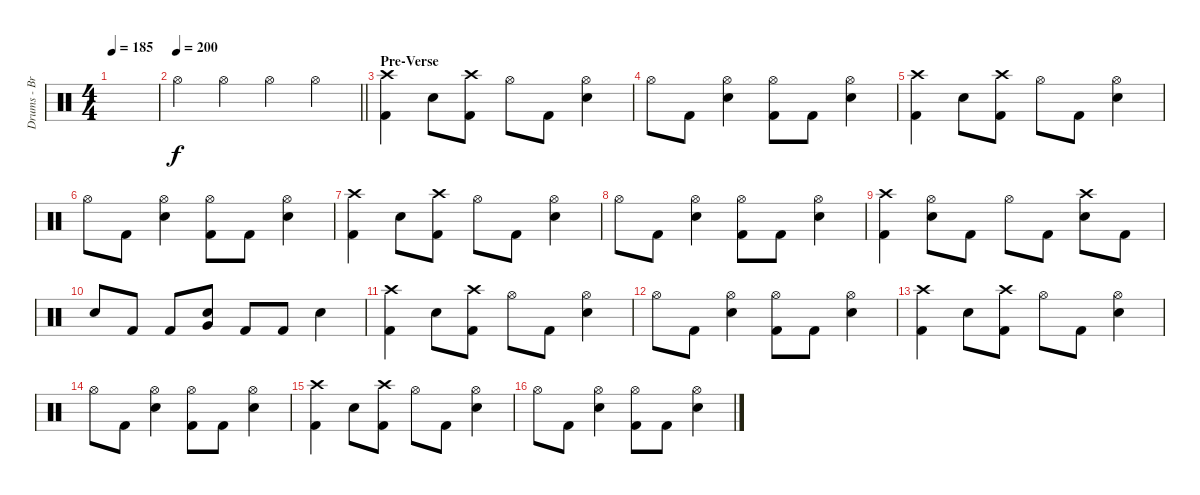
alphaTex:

\track ("Drums - Brandon Barnes" "Drums - Br") {instrument percussion}
\staff {score}
\articulation defaults
\ts (4 4)
\tempo 185
\clef neutral
\ks c
|
\tempo 200
\barLineRight lightlight "Hi-Hat (open)".4 "Hi-Hat (open)".4 "Hi-Hat (open)".4 "Hi-Hat (open)".4
|
\section ("" "Pre-Verse")
("Crash high (hit)" "Kick (hit) 2").4 "Electric Snare (hit)".8 ("Crash high (hit)" "Kick (hit) 2").8 "Hi-Hat (open)".8 "Kick (hit) 2".8 ("Hi-Hat (open)" "Electric Snare (hit)").4 |
"Hi-Hat (open)".8 "Kick (hit) 2".8 ("Hi-Hat (open)" "Electric Snare (hit)").4 ("Hi-Hat (open)" "Kick (hit) 2").8 "Kick (hit) 2".8 ("Hi-Hat (open)" "Electric Snare (hit)").4 |
("Crash high (hit)" "Kick (hit) 2").4 "Electric Snare (hit)".8 ("Crash high (hit)" "Kick (hit) 2").8 "Hi-Hat (open)".8 "Kick (hit) 2".8 ("Hi-Hat (open)" "Electric Snare (hit)").4 |
"Hi-Hat (open)".8 "Kick (hit) 2".8 ("Hi-Hat (open)" "Electric Snare (hit)").4 ("Hi-Hat (open)" "Kick (hit) 2").8 "Kick (hit) 2".8 ("Hi-Hat (open)" "Electric Snare (hit)").4 |
("Crash high (hit)" "Kick (hit) 2").4 "Electric Snare (hit)".8 ("Crash high (hit)" "Kick (hit) 2").8 "Hi-Hat (open)".8 "Kick (hit) 2".8 ("Hi-Hat (open)" "Electric Snare (hit)").4 |
"Hi-Hat (open)".8 "Kick (hit) 2".8 ("Hi-Hat (open)" "Electric Snare (hit)").4 ("Hi-Hat (open)" "Kick (hit) 2").8 "Kick (hit) 2".8 ("Hi-Hat (open)" "Electric Snare (hit)").4 |
("Crash high (hit)" "Kick (hit) 2").4 ("Hi-Hat (open)" "Electric Snare (hit)").8 "Kick (hit) 2".8 "Hi-Hat (open)".8 "Kick (hit) 2".8 ("Crash high (hit)" "Electric Snare (hit)").8 "Kick (hit) 2".8 |
"Electric Snare (hit)".8 "Kick (hit) 2".8 "Kick (hit) 2".8 ("Electric Snare (hit)" "Very Low Tom (hit)").8 "Kick (hit) 2".8 "Kick (hit) 2".8 "Electric Snare (hit)".4 |
("Crash high (hit)" "Kick (hit) 2").4 "Electric Snare (hit)".8 ("Crash high (hit)" "Kick (hit) 2").8 "Hi-Hat (open)".8 "Kick (hit) 2".8 ("Hi-Hat (open)" "Electric Snare (hit)").4 |
"Hi-Hat (open)".8 "Kick (hit) 2".8 ("Hi-Hat (open)" "Electric Snare (hit)").4 ("Hi-Hat (open)" "Kick (hit) 2").8 "Kick (hit) 2".8 ("Hi-Hat (open)" "Electric Snare (hit)").4 |
("Crash high (hit)" "Kick (hit) 2").4 "Electric Snare (hit)".8 ("Crash high (hit)" "Kick (hit) 2").8 "Hi-Hat (open)".8 "Kick (hit) 2".8 ("Hi-Hat (open)" "Electric Snare (hit)").4 |
"Hi-Hat (open)".8 "Kick (hit) 2".8 ("Hi-Hat (open)" "Electric Snare (hit)").4 ("Hi-Hat (open)" "Kick (hit) 2").8 "Kick (hit) 2".8 ("Hi-Hat (open)" "Electric Snare (hit)").4 |
("Crash high (hit)" "Kick (hit) 2").4 "Electric Snare (hit)".8 ("Crash high (hit)" "Kick (hit) 2").8 "Hi-Hat (open)".8 "Kick (hit) 2".8 ("Hi-Hat (open)" "Electric Snare (hit)").4 |
"Hi-Hat (open)".8 "Kick (hit) 2".8 ("Hi-Hat (open)" "Electric Snare (hit)").4 ("Hi-Hat (open)" "Kick (hit) 2").8 "Kick (hit) 2".8 ("Hi-Hat (open)" "Electric Snare (hit)").4
